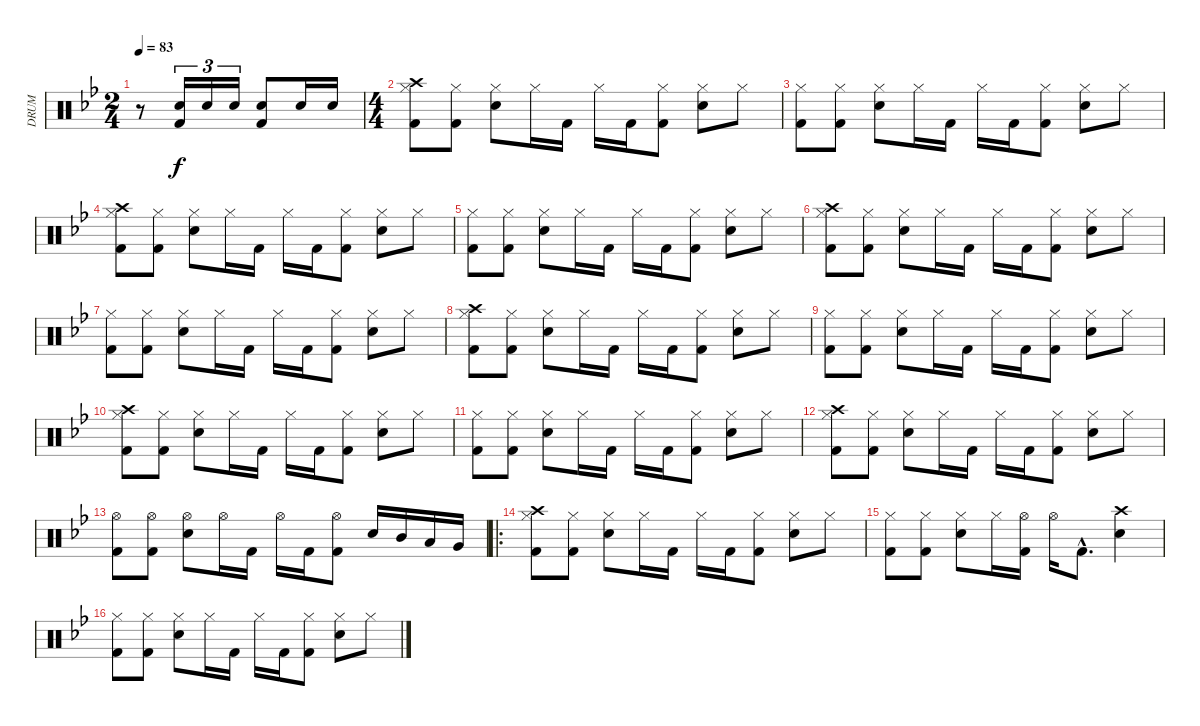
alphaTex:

\track ("DRUM" "DRUM") {instrument percussion}
\staff {score}
\articulation defaults
\ts (2 4)
\tempo 83
\clef neutral
\ks gminor
r.8{dy f} ("Electric Snare (hit)" "Kick (hit) 2").16{tu (3 2)} "Electric Snare (hit)".16{tu (3 2)} "Electric Snare (hit)".16{tu (3 2)} ("Electric Snare (hit)" "Kick (hit) 2").8 "Electric Snare (hit)".16 "Electric Snare (hit)".16 |
\ts (4 4)
("Hi-Hat (closed)" "Crash high (hit)" "Kick (hit) 2").8 ("Hi-Hat (closed)" "Kick (hit) 2").8 ("Hi-Hat (closed)" "Electric Snare (hit)").8 "Hi-Hat (closed)".16 "Kick (hit) 2".16 "Hi-Hat (closed)".16 "Kick (hit) 2".16 ("Hi-Hat (closed)" "Kick (hit) 2").8 ("Hi-Hat (closed)" "Electric Snare (hit)").8 "Hi-Hat (closed)".8 |
("Hi-Hat (closed)" "Kick (hit) 2").8 ("Hi-Hat (closed)" "Kick (hit) 2").8 ("Hi-Hat (closed)" "Electric Snare (hit)").8 "Hi-Hat (closed)".16 "Kick (hit) 2".16 "Hi-Hat (closed)".16 "Kick (hit) 2".16 ("Hi-Hat (closed)" "Kick (hit) 2").8 ("Hi-Hat (closed)" "Electric Snare (hit)").8 "Hi-Hat (closed)".8 |
("Hi-Hat (closed)" "Crash high (hit)" "Kick (hit) 2").8 ("Hi-Hat (closed)" "Kick (hit) 2").8 ("Hi-Hat (closed)" "Electric Snare (hit)").8 "Hi-Hat (closed)".16 "Kick (hit) 2".16 "Hi-Hat (closed)".16 "Kick (hit) 2".16 ("Hi-Hat (closed)" "Kick (hit) 2").8 ("Hi-Hat (closed)" "Electric Snare (hit)").8 "Hi-Hat (closed)".8 |
("Hi-Hat (closed)" "Kick (hit) 2").8 ("Hi-Hat (closed)" "Kick (hit) 2").8 ("Hi-Hat (closed)" "Electric Snare (hit)").8 "Hi-Hat (closed)".16 "Kick (hit) 2".16 "Hi-Hat (closed)".16 "Kick (hit) 2".16 ("Hi-Hat (closed)" "Kick (hit) 2").8 ("Hi-Hat (closed)" "Electric Snare (hit)").8 "Hi-Hat (closed)".8 |
("Hi-Hat (closed)" "Crash high (hit)" "Kick (hit) 2").8 ("Hi-Hat (closed)" "Kick (hit) 2").8 ("Hi-Hat (closed)" "Electric Snare (hit)").8 "Hi-Hat (closed)".16 "Kick (hit) 2".16 "Hi-Hat (closed)".16 "Kick (hit) 2".16 ("Hi-Hat (closed)" "Kick (hit) 2").8 ("Hi-Hat (closed)" "Electric Snare (hit)").8 "Hi-Hat (closed)".8 |
("Hi-Hat (closed)" "Kick (hit) 2").8 ("Hi-Hat (closed)" "Kick (hit) 2").8 ("Hi-Hat (closed)" "Electric Snare (hit)").8 "Hi-Hat (closed)".16 "Kick (hit) 2".16 "Hi-Hat (closed)".16 "Kick (hit) 2".16 ("Hi-Hat (closed)" "Kick (hit) 2").8 ("Hi-Hat (closed)" "Electric Snare (hit)").8 "Hi-Hat (closed)".8 |
("Hi-Hat (closed)" "Crash high (hit)" "Kick (hit) 2").8 ("Hi-Hat (closed)" "Kick (hit) 2").8 ("Hi-Hat (closed)" "Electric Snare (hit)").8 "Hi-Hat (closed)".16 "Kick (hit) 2".16 "Hi-Hat (closed)".16 "Kick (hit) 2".16 ("Hi-Hat (closed)" "Kick (hit) 2").8 ("Hi-Hat (closed)" "Electric Snare (hit)").8 "Hi-Hat (closed)".8 |
("Hi-Hat (closed)" "Kick (hit) 2").8 ("Hi-Hat (closed)" "Kick (hit) 2").8 ("Hi-Hat (closed)" "Electric Snare (hit)").8 "Hi-Hat (closed)".16 "Kick (hit) 2".16 "Hi-Hat (closed)".16 "Kick (hit) 2".16 ("Hi-Hat (closed)" "Kick (hit) 2").8 ("Hi-Hat (closed)" "Electric Snare (hit)").8 "Hi-Hat (closed)".8 |
("Hi-Hat (closed)" "Crash high (hit)" "Kick (hit) 2").8 ("Hi-Hat (closed)" "Kick (hit) 2").8 ("Hi-Hat (closed)" "Electric Snare (hit)").8 "Hi-Hat (closed)".16 "Kick (hit) 2".16 "Hi-Hat (closed)".16 "Kick (hit) 2".16 ("Hi-Hat (closed)" "Kick (hit) 2").8 ("Hi-Hat (closed)" "Electric Snare (hit)").8 "Hi-Hat (closed)".8 |
("Hi-Hat (closed)" "Kick (hit) 2").8 ("Hi-Hat (closed)" "Kick (hit) 2").8 ("Hi-Hat (closed)" "Electric Snare (hit)").8 "Hi-Hat (closed)".16 "Kick (hit) 2".16 "Hi-Hat (closed)".16 "Kick (hit) 2".16 ("Hi-Hat (closed)" "Kick (hit) 2").8 ("Hi-Hat (closed)" "Electric Snare (hit)").8 "Hi-Hat (closed)".8 |
("Hi-Hat (closed)" "Crash high (hit)" "Kick (hit) 2").8 ("Hi-Hat (closed)" "Kick (hit) 2").8 ("Hi-Hat (closed)" "Electric Snare (hit)").8 "Hi-Hat (closed)".16 "Kick (hit) 2".16 "Hi-Hat (closed)".16 "Kick (hit) 2".16 ("Hi-Hat (closed)" "Kick (hit) 2").8 ("Hi-Hat (closed)" "Electric Snare (hit)").8 "Hi-Hat (closed)".8 |
("Hi-Hat (open)" "Kick (hit) 2").8 ("Hi-Hat (open)" "Kick (hit) 2").8 ("Hi-Hat (open)" "Electric Snare (hit)").8 "Hi-Hat (open)".16 "Kick (hit) 2".16 "Hi-Hat (open)".16 "Kick (hit) 2".16 ("Hi-Hat (open)" "Kick (hit) 2").8 "Electric Snare (hit)".16 "Mid Tom (hit)".16 "Low Tom (hit)".16 "Very Low Tom (hit)".16 |
\ro
("Hi-Hat (closed)" "Crash high (hit)" "Kick (hit) 2").8 ("Hi-Hat (closed)" "Kick (hit) 2").8 ("Hi-Hat (closed)" "Electric Snare (hit)").8 "Hi-Hat (closed)".16 "Kick (hit) 2".16 "Hi-Hat (closed)".16 "Kick (hit) 2".16 ("Hi-Hat (closed)" "Kick (hit) 2").8 ("Hi-Hat (closed)" "Electric Snare (hit)").8 "Hi-Hat (closed)".8 |
("Hi-Hat (closed)" "Kick (hit) 2").8 ("Hi-Hat (closed)" "Kick (hit) 2").8 ("Hi-Hat (closed)" "Electric Snare (hit)").8 "Hi-Hat (closed)".16 ("Hi-Hat (open)" "Kick (hit) 2").16 "Hi-Hat (open)".16 "Kick (hit) 2"{hac}.8{d} ("Crash high (hit)" "Electric Snare (hit)").4 |
("Hi-Hat (closed)" "Kick (hit) 2").8 ("Hi-Hat (closed)" "Kick (hit) 2").8 ("Hi-Hat (closed)" "Electric Snare (hit)").8 "Hi-Hat (closed)".16 "Kick (hit) 2".16 "Hi-Hat (closed)".16 "Kick (hit) 2".16 ("Hi-Hat (closed)" "Kick (hit) 2").8 ("Hi-Hat (closed)" "Electric Snare (hit)").8 "Hi-Hat (closed)".8
